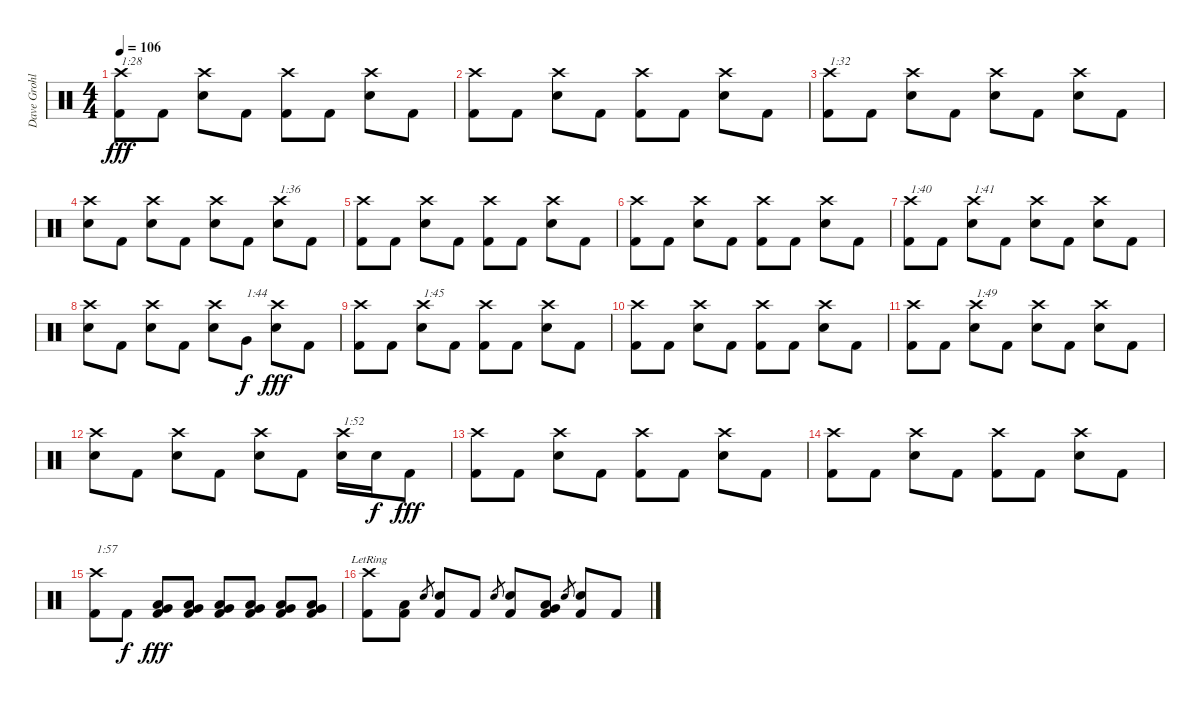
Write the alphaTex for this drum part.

\track ("Dave Grohl" "Dave Grohl") {instrument percussion}
\staff {score}
\articulation defaults
\ts (4 4)
\tempo 106
\clef neutral
\ks c
("Crash high (hit)" "Kick (hit) 2").8{txt "1:28" dy fff} "Kick (hit) 2".8 ("Crash high (hit)" "Snare (hit) 2").8 "Kick (hit) 2".8 ("Crash high (hit)" "Kick (hit) 2").8 "Kick (hit) 2".8 ("Crash high (hit)" "Snare (hit) 2").8 "Kick (hit) 2".8 |
("Crash high (hit)" "Kick (hit) 2").8 "Kick (hit) 2".8 ("Crash high (hit)" "Snare (hit) 2").8 "Kick (hit) 2".8 ("Crash high (hit)" "Kick (hit) 2").8 "Kick (hit) 2".8 ("Crash high (hit)" "Snare (hit) 2").8 "Kick (hit) 2".8 |
("Crash high (hit)" "Kick (hit) 2").8{txt "1:32"} "Kick (hit) 2".8 ("Crash high (hit)" "Snare (hit) 2").8 "Kick (hit) 2".8 ("Crash high (hit)" "Snare (hit) 2").8 "Kick (hit) 2".8 ("Crash high (hit)" "Snare (hit) 2").8 "Kick (hit) 2".8 |
("Crash high (hit)" "Snare (hit) 2").8 "Kick (hit) 2".8 ("Crash high (hit)" "Snare (hit) 2").8 "Kick (hit) 2".8 ("Crash high (hit)" "Snare (hit) 2").8 "Kick (hit) 2".8 ("Crash high (hit)" "Snare (hit) 2").8{txt "1:36"} "Kick (hit) 2".8 |
("Crash high (hit)" "Kick (hit) 2").8 "Kick (hit) 2".8 ("Crash high (hit)" "Snare (hit) 2").8 "Kick (hit) 2".8 ("Crash high (hit)" "Kick (hit) 2").8 "Kick (hit) 2".8 ("Crash high (hit)" "Snare (hit) 2").8 "Kick (hit) 2".8 |
("Crash high (hit)" "Kick (hit) 2").8 "Kick (hit) 2".8 ("Crash high (hit)" "Snare (hit) 2").8 "Kick (hit) 2".8 ("Crash high (hit)" "Kick (hit) 2").8 "Kick (hit) 2".8 ("Crash high (hit)" "Snare (hit) 2").8 "Kick (hit) 2".8 |
("Crash high (hit)" "Kick (hit) 2").8{txt "1:40"} "Kick (hit) 2".8 ("Crash high (hit)" "Snare (hit) 2").8{txt "1:41"} "Kick (hit) 2".8 ("Crash high (hit)" "Snare (hit) 2").8 "Kick (hit) 2".8 ("Crash high (hit)" "Snare (hit) 2").8 "Kick (hit) 2".8 |
("Crash high (hit)" "Snare (hit) 2").8 "Kick (hit) 2".8 ("Crash high (hit)" "Snare (hit) 2").8 "Kick (hit) 2".8 ("Crash high (hit)" "Snare (hit) 2").8 "Very Low Tom (hit)".8{txt "1:44" dy f} ("Crash high (hit)" "Snare (hit) 2").8{dy fff} "Kick (hit) 2".8 |
("Crash high (hit)" "Kick (hit) 2").8 "Kick (hit) 2".8 ("Crash high (hit)" "Snare (hit) 2").8{txt "1:45"} "Kick (hit) 2".8 ("Crash high (hit)" "Kick (hit) 2").8 "Kick (hit) 2".8 ("Crash high (hit)" "Snare (hit) 2").8 "Kick (hit) 2".8 |
("Crash high (hit)" "Kick (hit) 2").8 "Kick (hit) 2".8 ("Crash high (hit)" "Snare (hit) 2").8 "Kick (hit) 2".8 ("Crash high (hit)" "Kick (hit) 2").8 "Kick (hit) 2".8 ("Crash high (hit)" "Snare (hit) 2").8 "Kick (hit) 2".8 |
("Crash high (hit)" "Kick (hit) 2").8 "Kick (hit) 2".8 ("Crash high (hit)" "Snare (hit) 2").8{txt "1:49"} "Kick (hit) 2".8 ("Crash high (hit)" "Snare (hit) 2").8 "Kick (hit) 2".8 ("Crash high (hit)" "Snare (hit) 2").8 "Kick (hit) 2".8 |
("Crash high (hit)" "Snare (hit) 2").8 "Kick (hit) 2".8 ("Crash high (hit)" "Snare (hit) 2").8 "Kick (hit) 2".8 ("Crash high (hit)" "Snare (hit) 2").8 "Kick (hit) 2".8 ("Crash high (hit)" "Snare (hit) 2").16{txt "1:52"} "Snare (hit) 2".16{dy f} "Kick (hit) 2".8{dy fff} |
("Crash high (hit)" "Kick (hit) 2").8 "Kick (hit) 2".8 ("Crash high (hit)" "Snare (hit) 2").8 "Kick (hit) 2".8 ("Crash high (hit)" "Kick (hit) 2").8 "Kick (hit) 2".8 ("Crash high (hit)" "Snare (hit) 2").8 "Kick (hit) 2".8 |
("Crash high (hit)" "Kick (hit) 2").8 "Kick (hit) 2".8 ("Crash high (hit)" "Snare (hit) 2").8 "Kick (hit) 2".8 ("Crash high (hit)" "Kick (hit) 2").8 "Kick (hit) 2".8 ("Crash high (hit)" "Snare (hit) 2").8 "Kick (hit) 2".8 |
("Crash high (hit)" "Kick (hit) 2").8{txt "1:57"} "Kick (hit) 2".8{dy f} ("Very Low Tom (hit)" "Low Floor Tom (hit)" "Kick (hit) 2").8{dy fff} ("Very Low Tom (hit)" "Low Floor Tom (hit)" "Kick (hit) 2").8 ("Very Low Tom (hit)" "Low Floor Tom (hit)" "Kick (hit) 2").8 ("Very Low Tom (hit)" "Low Floor Tom (hit)" "Kick (hit) 2").8 ("Very Low Tom (hit)" "Low Floor Tom (hit)" "Kick (hit) 2").8 ("Very Low Tom (hit)" "Low Floor Tom (hit)" "Kick (hit) 2").8 |
("Crash high (hit)"{lr} "Kick (hit) 2").8 ("Low Floor Tom (hit)" "Kick (hit) 2").8 "Snare (hit) 2".8{gr} ("Snare (hit) 2" "Kick (hit) 2").8 "Kick (hit) 2".8 "Snare (hit) 2".8{gr} ("Snare (hit) 2" "Kick (hit) 2").8 ("Very Low Tom (hit)" "Low Floor Tom (hit)" "Kick (hit) 2").8 "Snare (hit) 2".8{gr} ("Snare (hit) 2" "Kick (hit) 2").8 "Kick (hit) 2".8
